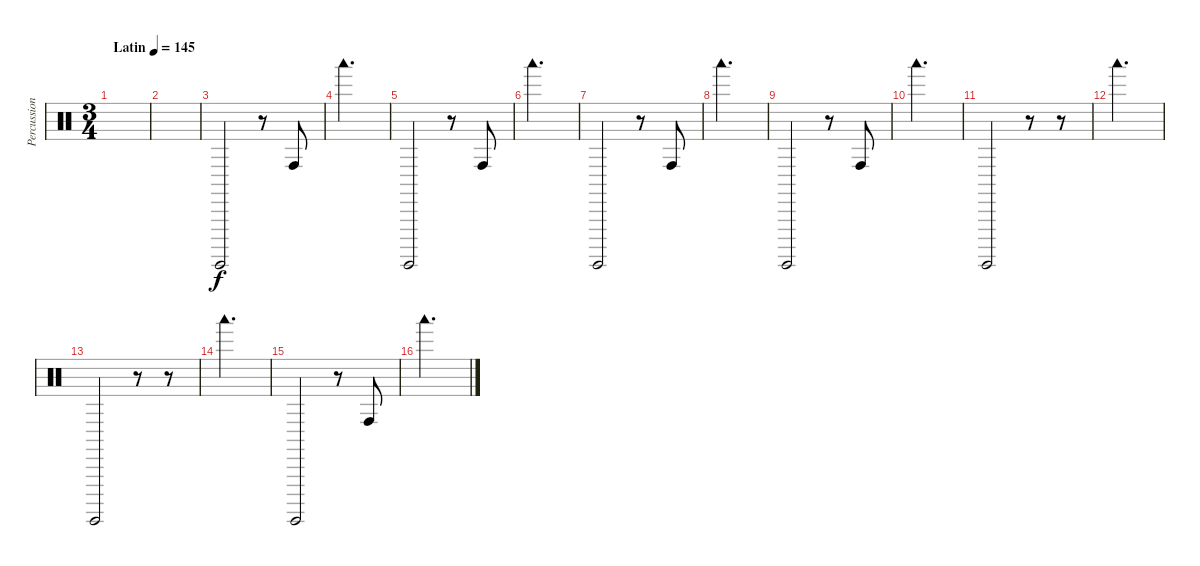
\track ("Percussion" "Percussion") {instrument percussion}
\staff {score}
\articulation defaults
\ts (3 4)
\tempo (145 "Latin")
\clef neutral
\ks c
|
|
"Surdo (hit)".2 r.8 "Conga high (hit)".8 |
"Woodblock low (hit)".2{d} |
"Surdo (hit)".2 r.8 "Conga high (hit)".8 |
"Woodblock low (hit)".2{d} |
"Surdo (hit)".2 r.8 "Conga high (hit)".8 |
"Woodblock low (hit)".2{d} |
"Surdo (hit)".2 r.8 "Conga high (hit)".8 |
"Woodblock low (hit)".2{d} |
"Surdo (hit)".2 r.8 r.8 |
"Woodblock low (hit)".2{d} |
"Surdo (hit)".2 r.8 r.8 |
"Woodblock low (hit)".2{d} |
"Surdo (hit)".2 r.8 "Conga high (hit)".8 |
"Woodblock low (hit)".2{d}
